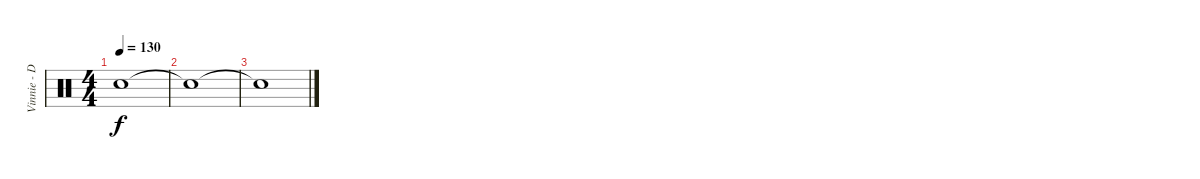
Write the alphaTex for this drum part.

\track ("Vinnie - Drums" "Vinnie - D") {instrument percussion}
\staff {score}
\articulation defaults
\ts (4 4)
\tempo 130
\clef neutral
\ks c "Snare (hit)"{t}.1{dy f}
|
"Snare (hit)"{t}.1 |
"Snare (hit)"{t}.1
